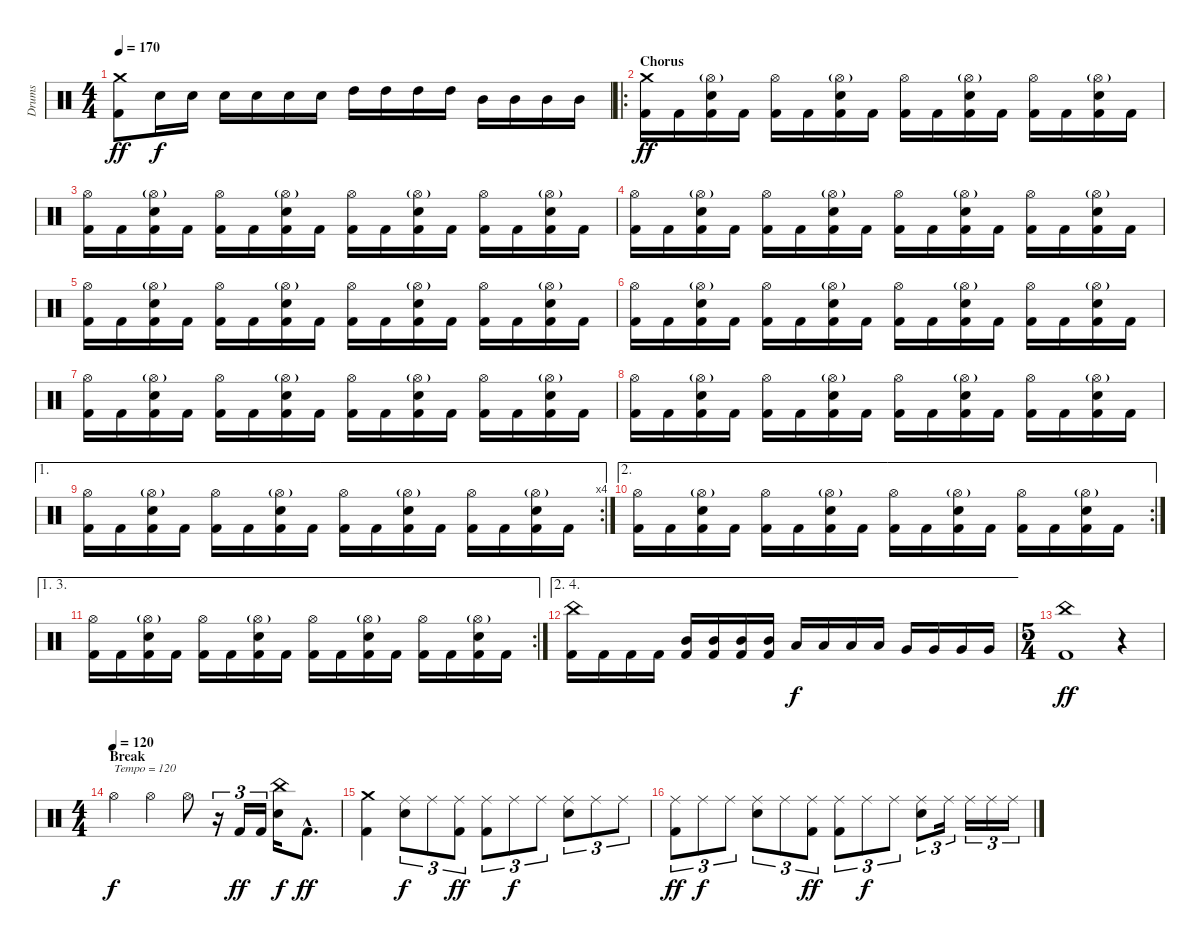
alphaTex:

\track ("Drums" "Drums") {instrument percussion}
\staff {score}
\articulation defaults
\ts (4 4)
\tempo 170
\clef neutral
\ks c
("Crash medium (hit)" "Kick (hit) 2").8{dy ff} "Electric Snare (hit)".16{dy f} "Electric Snare (hit)".16 "Electric Snare (hit)".16 "Electric Snare (hit)".16 "Electric Snare (hit)".16 "Electric Snare (hit)".16 "High Tom (hit)".16 "High Tom (hit)".16 "High Tom (hit)".16 "High Tom (hit)".16 "Mid Tom (hit)".16 "Mid Tom (hit)".16 "Mid Tom (hit)".16 "Mid Tom (hit)".16 |
\ro
\section ("" "Chorus")
("Crash medium (hit)" "Kick (hit) 2").16{dy ff} "Kick (hit) 2".16 ("Hi-Hat (open)"{g} "Electric Snare (hit)" "Kick (hit) 2").16 "Kick (hit) 2".16 ("Hi-Hat (open)" "Kick (hit) 2").16 "Kick (hit) 2".16 ("Hi-Hat (open)"{g} "Electric Snare (hit)" "Kick (hit) 2").16 "Kick (hit) 2".16 ("Hi-Hat (open)" "Kick (hit) 2").16 "Kick (hit) 2".16 ("Hi-Hat (open)"{g} "Electric Snare (hit)" "Kick (hit) 2").16 "Kick (hit) 2".16 ("Hi-Hat (open)" "Kick (hit) 2").16 "Kick (hit) 2".16 ("Hi-Hat (open)"{g} "Electric Snare (hit)" "Kick (hit) 2").16 "Kick (hit) 2".16 |
("Hi-Hat (open)" "Kick (hit) 2").16 "Kick (hit) 2".16 ("Hi-Hat (open)"{g} "Electric Snare (hit)" "Kick (hit) 2").16 "Kick (hit) 2".16 ("Hi-Hat (open)" "Kick (hit) 2").16 "Kick (hit) 2".16 ("Hi-Hat (open)"{g} "Electric Snare (hit)" "Kick (hit) 2").16 "Kick (hit) 2".16 ("Hi-Hat (open)" "Kick (hit) 2").16 "Kick (hit) 2".16 ("Hi-Hat (open)"{g} "Electric Snare (hit)" "Kick (hit) 2").16 "Kick (hit) 2".16 ("Hi-Hat (open)" "Kick (hit) 2").16 "Kick (hit) 2".16 ("Hi-Hat (open)"{g} "Electric Snare (hit)" "Kick (hit) 2").16 "Kick (hit) 2".16 |
("Hi-Hat (open)" "Kick (hit) 2").16 "Kick (hit) 2".16 ("Hi-Hat (open)"{g} "Electric Snare (hit)" "Kick (hit) 2").16 "Kick (hit) 2".16 ("Hi-Hat (open)" "Kick (hit) 2").16 "Kick (hit) 2".16 ("Hi-Hat (open)"{g} "Electric Snare (hit)" "Kick (hit) 2").16 "Kick (hit) 2".16 ("Hi-Hat (open)" "Kick (hit) 2").16 "Kick (hit) 2".16 ("Hi-Hat (open)"{g} "Electric Snare (hit)" "Kick (hit) 2").16 "Kick (hit) 2".16 ("Hi-Hat (open)" "Kick (hit) 2").16 "Kick (hit) 2".16 ("Hi-Hat (open)"{g} "Electric Snare (hit)" "Kick (hit) 2").16 "Kick (hit) 2".16 |
("Hi-Hat (open)" "Kick (hit) 2").16 "Kick (hit) 2".16 ("Hi-Hat (open)"{g} "Electric Snare (hit)" "Kick (hit) 2").16 "Kick (hit) 2".16 ("Hi-Hat (open)" "Kick (hit) 2").16 "Kick (hit) 2".16 ("Hi-Hat (open)"{g} "Electric Snare (hit)" "Kick (hit) 2").16 "Kick (hit) 2".16 ("Hi-Hat (open)" "Kick (hit) 2").16 "Kick (hit) 2".16 ("Hi-Hat (open)"{g} "Electric Snare (hit)" "Kick (hit) 2").16 "Kick (hit) 2".16 ("Hi-Hat (open)" "Kick (hit) 2").16 "Kick (hit) 2".16 ("Hi-Hat (open)"{g} "Electric Snare (hit)" "Kick (hit) 2").16 "Kick (hit) 2".16 |
("Hi-Hat (open)" "Kick (hit) 2").16 "Kick (hit) 2".16 ("Hi-Hat (open)"{g} "Electric Snare (hit)" "Kick (hit) 2").16 "Kick (hit) 2".16 ("Hi-Hat (open)" "Kick (hit) 2").16 "Kick (hit) 2".16 ("Hi-Hat (open)"{g} "Electric Snare (hit)" "Kick (hit) 2").16 "Kick (hit) 2".16 ("Hi-Hat (open)" "Kick (hit) 2").16 "Kick (hit) 2".16 ("Hi-Hat (open)"{g} "Electric Snare (hit)" "Kick (hit) 2").16 "Kick (hit) 2".16 ("Hi-Hat (open)" "Kick (hit) 2").16 "Kick (hit) 2".16 ("Hi-Hat (open)"{g} "Electric Snare (hit)" "Kick (hit) 2").16 "Kick (hit) 2".16 |
("Hi-Hat (open)" "Kick (hit) 2").16 "Kick (hit) 2".16 ("Hi-Hat (open)"{g} "Electric Snare (hit)" "Kick (hit) 2").16 "Kick (hit) 2".16 ("Hi-Hat (open)" "Kick (hit) 2").16 "Kick (hit) 2".16 ("Hi-Hat (open)"{g} "Electric Snare (hit)" "Kick (hit) 2").16 "Kick (hit) 2".16 ("Hi-Hat (open)" "Kick (hit) 2").16 "Kick (hit) 2".16 ("Hi-Hat (open)"{g} "Electric Snare (hit)" "Kick (hit) 2").16 "Kick (hit) 2".16 ("Hi-Hat (open)" "Kick (hit) 2").16 "Kick (hit) 2".16 ("Hi-Hat (open)"{g} "Electric Snare (hit)" "Kick (hit) 2").16 "Kick (hit) 2".16 |
("Hi-Hat (open)" "Kick (hit) 2").16 "Kick (hit) 2".16 ("Hi-Hat (open)"{g} "Electric Snare (hit)" "Kick (hit) 2").16 "Kick (hit) 2".16 ("Hi-Hat (open)" "Kick (hit) 2").16 "Kick (hit) 2".16 ("Hi-Hat (open)"{g} "Electric Snare (hit)" "Kick (hit) 2").16 "Kick (hit) 2".16 ("Hi-Hat (open)" "Kick (hit) 2").16 "Kick (hit) 2".16 ("Hi-Hat (open)"{g} "Electric Snare (hit)" "Kick (hit) 2").16 "Kick (hit) 2".16 ("Hi-Hat (open)" "Kick (hit) 2").16 "Kick (hit) 2".16 ("Hi-Hat (open)"{g} "Electric Snare (hit)" "Kick (hit) 2").16 "Kick (hit) 2".16 |
\ae 1
\rc 4
("Hi-Hat (open)" "Kick (hit) 2").16 "Kick (hit) 2".16 ("Hi-Hat (open)"{g} "Electric Snare (hit)" "Kick (hit) 2").16 "Kick (hit) 2".16 ("Hi-Hat (open)" "Kick (hit) 2").16 "Kick (hit) 2".16 ("Hi-Hat (open)"{g} "Electric Snare (hit)" "Kick (hit) 2").16 "Kick (hit) 2".16 ("Hi-Hat (open)" "Kick (hit) 2").16 "Kick (hit) 2".16 ("Hi-Hat (open)"{g} "Electric Snare (hit)" "Kick (hit) 2").16 "Kick (hit) 2".16 ("Hi-Hat (open)" "Kick (hit) 2").16 "Kick (hit) 2".16 ("Hi-Hat (open)"{g} "Electric Snare (hit)" "Kick (hit) 2").16 "Kick (hit) 2".16 |
\ae 2
\rc 2
("Hi-Hat (open)" "Kick (hit) 2").16 "Kick (hit) 2".16 ("Hi-Hat (open)"{g} "Electric Snare (hit)" "Kick (hit) 2").16 "Kick (hit) 2".16 ("Hi-Hat (open)" "Kick (hit) 2").16 "Kick (hit) 2".16 ("Hi-Hat (open)"{g} "Electric Snare (hit)" "Kick (hit) 2").16 "Kick (hit) 2".16 ("Hi-Hat (open)" "Kick (hit) 2").16 "Kick (hit) 2".16 ("Hi-Hat (open)"{g} "Electric Snare (hit)" "Kick (hit) 2").16 "Kick (hit) 2".16 ("Hi-Hat (open)" "Kick (hit) 2").16 "Kick (hit) 2".16 ("Hi-Hat (open)"{g} "Electric Snare (hit)" "Kick (hit) 2").16 "Kick (hit) 2".16 |
\ae (1 3)
\rc 2
("Hi-Hat (open)" "Kick (hit) 2").16 "Kick (hit) 2".16 ("Hi-Hat (open)"{g} "Electric Snare (hit)" "Kick (hit) 2").16 "Kick (hit) 2".16 ("Hi-Hat (open)" "Kick (hit) 2").16 "Kick (hit) 2".16 ("Hi-Hat (open)"{g} "Electric Snare (hit)" "Kick (hit) 2").16 "Kick (hit) 2".16 ("Hi-Hat (open)" "Kick (hit) 2").16 "Kick (hit) 2".16 ("Hi-Hat (open)"{g} "Electric Snare (hit)" "Kick (hit) 2").16 "Kick (hit) 2".16 ("Hi-Hat (open)" "Kick (hit) 2").16 "Kick (hit) 2".16 ("Hi-Hat (open)"{g} "Electric Snare (hit)" "Kick (hit) 2").16 "Kick (hit) 2".16 |
\ae (2 4)
("China (hit)" "Kick (hit) 2").16 "Kick (hit) 2".16 "Kick (hit) 2".16 "Kick (hit) 2".16 ("Mid Tom (hit)" "Kick (hit) 2").16 ("Mid Tom (hit)" "Kick (hit) 2").16 ("Mid Tom (hit)" "Kick (hit) 2").16 ("Mid Tom (hit)" "Kick (hit) 2").16 "Low Tom (hit)".16{dy f} "Low Tom (hit)".16 "Low Tom (hit)".16 "Low Tom (hit)".16 "Very Low Tom (hit)".16 "Very Low Tom (hit)".16 "Very Low Tom (hit)".16 "Very Low Tom (hit)".16 |
\ts (5 4)
("China (hit)" "Kick (hit) 2").1{dy ff} r.4 |
\ts (4 4)
\section ("" "Break")
\tempo (120)
"Hi-Hat (open)".4{txt "Tempo = 120" dy f} "Hi-Hat (open)".4 "Hi-Hat (open)".8 r.16{tu (3 2)} "Kick (hit) 2".16{tu (3 2) dy ff} "Kick (hit) 2".16{tu (3 2)} ("China (hit)" "Electric Snare (hit)").16{dy f} "Kick (hit) 2"{hac}.8{d dy ff} |
("Crash medium (hit)" "Kick (hit) 2").4 ("Ride (middle)" "Electric Snare (hit)").8{tu (3 2) dy f} "Ride (middle)".8{tu (3 2)} ("Ride (middle)" "Kick (hit) 2").8{tu (3 2) dy ff} ("Ride (middle)" "Kick (hit) 2").8{tu (3 2)} "Ride (middle)".8{tu (3 2) dy f} "Ride (middle)".8{tu (3 2)} ("Ride (middle)" "Electric Snare (hit)").8{tu (3 2)} "Ride (middle)".8{tu (3 2)} "Ride (middle)".8{tu (3 2)} |
("Ride (middle)" "Kick (hit) 2").8{tu (3 2) dy ff} "Ride (middle)".8{tu (3 2) dy f} "Ride (middle)".8{tu (3 2)} ("Ride (middle)" "Electric Snare (hit)").8{tu (3 2)} "Ride (middle)".8{tu (3 2)} ("Ride (middle)" "Kick (hit) 2").8{tu (3 2) dy ff} ("Ride (middle)" "Kick (hit) 2").8{tu (3 2)} "Ride (middle)".8{tu (3 2) dy f} "Ride (middle)".8{tu (3 2)} ("Ride (middle)" "Electric Snare (hit)").8{tu (3 2)} "Ride (middle)".16{tu (3 2)} "Ride (middle)".16{tu (3 2)} "Ride (middle)".16{tu (3 2)} "Ride (middle)".16{tu (3 2)}
